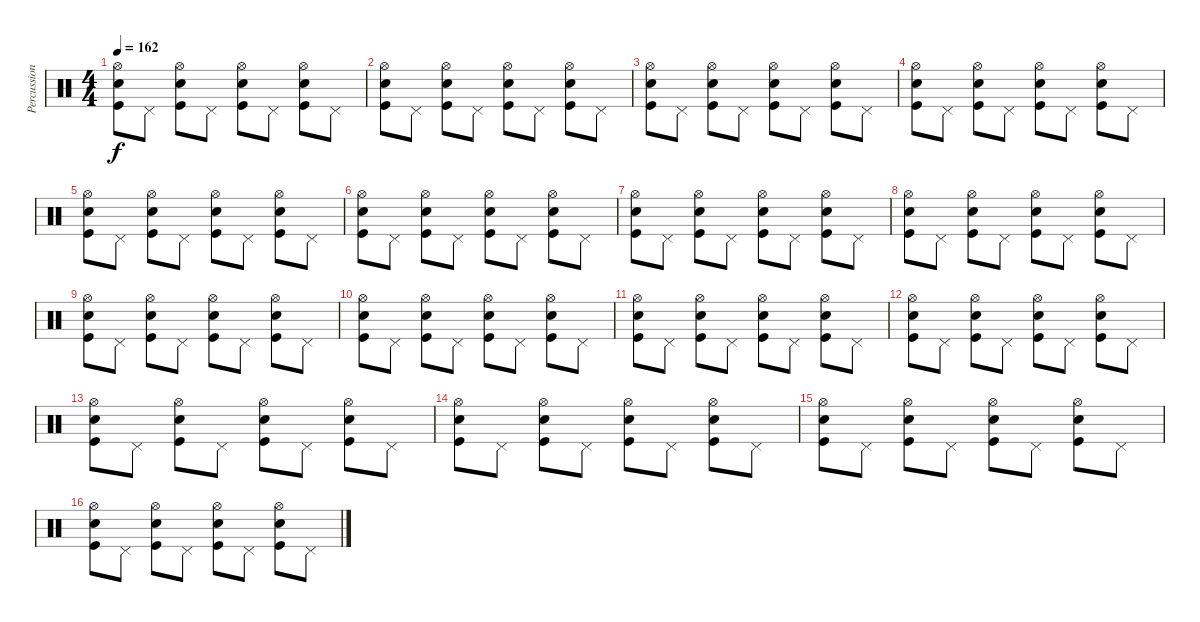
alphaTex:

\track ("Percussion" "Percussion") {instrument percussion}
\staff {score}
\articulation defaults
\ts (4 4)
\tempo 162
\clef neutral
\ks c
("Hi-Hat (open)" "Kick (hit)" "Snare (hit) 2").8{dy f} "Pedal Hi-Hat (hit)".8 ("Hi-Hat (open)" "Snare (hit) 2" "Kick (hit)").8 "Pedal Hi-Hat (hit)".8 ("Hi-Hat (open)" "Kick (hit)" "Snare (hit) 2").8 "Pedal Hi-Hat (hit)".8 ("Hi-Hat (open)" "Snare (hit) 2" "Kick (hit)").8 "Pedal Hi-Hat (hit)".8 |
("Hi-Hat (open)" "Kick (hit)" "Snare (hit) 2").8 "Pedal Hi-Hat (hit)".8 ("Hi-Hat (open)" "Snare (hit) 2" "Kick (hit)").8 "Pedal Hi-Hat (hit)".8 ("Hi-Hat (open)" "Kick (hit)" "Snare (hit) 2").8 "Pedal Hi-Hat (hit)".8 ("Hi-Hat (open)" "Snare (hit) 2" "Kick (hit)").8 "Pedal Hi-Hat (hit)".8 |
("Hi-Hat (open)" "Kick (hit)" "Snare (hit) 2").8 "Pedal Hi-Hat (hit)".8 ("Hi-Hat (open)" "Snare (hit) 2" "Kick (hit)").8 "Pedal Hi-Hat (hit)".8 ("Hi-Hat (open)" "Kick (hit)" "Snare (hit) 2").8 "Pedal Hi-Hat (hit)".8 ("Hi-Hat (open)" "Snare (hit) 2" "Kick (hit)").8 "Pedal Hi-Hat (hit)".8 |
("Hi-Hat (open)" "Kick (hit)" "Snare (hit) 2").8 "Pedal Hi-Hat (hit)".8 ("Hi-Hat (open)" "Snare (hit) 2" "Kick (hit)").8 "Pedal Hi-Hat (hit)".8 ("Hi-Hat (open)" "Kick (hit)" "Snare (hit) 2").8 "Pedal Hi-Hat (hit)".8 ("Hi-Hat (open)" "Snare (hit) 2" "Kick (hit)").8 "Pedal Hi-Hat (hit)".8 |
("Hi-Hat (open)" "Kick (hit)" "Snare (hit) 2").8 "Pedal Hi-Hat (hit)".8 ("Hi-Hat (open)" "Snare (hit) 2" "Kick (hit)").8 "Pedal Hi-Hat (hit)".8 ("Hi-Hat (open)" "Kick (hit)" "Snare (hit) 2").8 "Pedal Hi-Hat (hit)".8 ("Hi-Hat (open)" "Snare (hit) 2" "Kick (hit)").8 "Pedal Hi-Hat (hit)".8 |
("Hi-Hat (open)" "Kick (hit)" "Snare (hit) 2").8 "Pedal Hi-Hat (hit)".8 ("Hi-Hat (open)" "Snare (hit) 2" "Kick (hit)").8 "Pedal Hi-Hat (hit)".8 ("Hi-Hat (open)" "Kick (hit)" "Snare (hit) 2").8 "Pedal Hi-Hat (hit)".8 ("Hi-Hat (open)" "Snare (hit) 2" "Kick (hit)").8 "Pedal Hi-Hat (hit)".8 |
("Hi-Hat (open)" "Kick (hit)" "Snare (hit) 2").8 "Pedal Hi-Hat (hit)".8 ("Hi-Hat (open)" "Snare (hit) 2" "Kick (hit)").8 "Pedal Hi-Hat (hit)".8 ("Hi-Hat (open)" "Kick (hit)" "Snare (hit) 2").8 "Pedal Hi-Hat (hit)".8 ("Hi-Hat (open)" "Snare (hit) 2" "Kick (hit)").8 "Pedal Hi-Hat (hit)".8 |
("Hi-Hat (open)" "Kick (hit)" "Snare (hit) 2").8 "Pedal Hi-Hat (hit)".8 ("Hi-Hat (open)" "Snare (hit) 2" "Kick (hit)").8 "Pedal Hi-Hat (hit)".8 ("Hi-Hat (open)" "Kick (hit)" "Snare (hit) 2").8 "Pedal Hi-Hat (hit)".8 ("Hi-Hat (open)" "Snare (hit) 2" "Kick (hit)").8 "Pedal Hi-Hat (hit)".8 |
("Hi-Hat (open)" "Kick (hit)" "Snare (hit) 2").8 "Pedal Hi-Hat (hit)".8 ("Hi-Hat (open)" "Snare (hit) 2" "Kick (hit)").8 "Pedal Hi-Hat (hit)".8 ("Hi-Hat (open)" "Kick (hit)" "Snare (hit) 2").8 "Pedal Hi-Hat (hit)".8 ("Hi-Hat (open)" "Snare (hit) 2" "Kick (hit)").8 "Pedal Hi-Hat (hit)".8 |
("Hi-Hat (open)" "Kick (hit)" "Snare (hit) 2").8 "Pedal Hi-Hat (hit)".8 ("Hi-Hat (open)" "Snare (hit) 2" "Kick (hit)").8 "Pedal Hi-Hat (hit)".8 ("Hi-Hat (open)" "Kick (hit)" "Snare (hit) 2").8 "Pedal Hi-Hat (hit)".8 ("Hi-Hat (open)" "Snare (hit) 2" "Kick (hit)").8 "Pedal Hi-Hat (hit)".8 |
("Hi-Hat (open)" "Kick (hit)" "Snare (hit) 2").8 "Pedal Hi-Hat (hit)".8 ("Hi-Hat (open)" "Snare (hit) 2" "Kick (hit)").8 "Pedal Hi-Hat (hit)".8 ("Hi-Hat (open)" "Kick (hit)" "Snare (hit) 2").8 "Pedal Hi-Hat (hit)".8 ("Hi-Hat (open)" "Snare (hit) 2" "Kick (hit)").8 "Pedal Hi-Hat (hit)".8 |
("Hi-Hat (open)" "Kick (hit)" "Snare (hit) 2").8 "Pedal Hi-Hat (hit)".8 ("Hi-Hat (open)" "Snare (hit) 2" "Kick (hit)").8 "Pedal Hi-Hat (hit)".8 ("Hi-Hat (open)" "Kick (hit)" "Snare (hit) 2").8 "Pedal Hi-Hat (hit)".8 ("Hi-Hat (open)" "Snare (hit) 2" "Kick (hit)").8 "Pedal Hi-Hat (hit)".8 |
("Hi-Hat (open)" "Kick (hit)" "Snare (hit) 2").8 "Pedal Hi-Hat (hit)".8 ("Hi-Hat (open)" "Snare (hit) 2" "Kick (hit)").8 "Pedal Hi-Hat (hit)".8 ("Hi-Hat (open)" "Kick (hit)" "Snare (hit) 2").8 "Pedal Hi-Hat (hit)".8 ("Hi-Hat (open)" "Snare (hit) 2" "Kick (hit)").8 "Pedal Hi-Hat (hit)".8 |
("Hi-Hat (open)" "Kick (hit)" "Snare (hit) 2").8 "Pedal Hi-Hat (hit)".8 ("Hi-Hat (open)" "Snare (hit) 2" "Kick (hit)").8 "Pedal Hi-Hat (hit)".8 ("Hi-Hat (open)" "Kick (hit)" "Snare (hit) 2").8 "Pedal Hi-Hat (hit)".8 ("Hi-Hat (open)" "Snare (hit) 2" "Kick (hit)").8 "Pedal Hi-Hat (hit)".8 |
("Hi-Hat (open)" "Kick (hit)" "Snare (hit) 2").8 "Pedal Hi-Hat (hit)".8 ("Hi-Hat (open)" "Snare (hit) 2" "Kick (hit)").8 "Pedal Hi-Hat (hit)".8 ("Hi-Hat (open)" "Kick (hit)" "Snare (hit) 2").8 "Pedal Hi-Hat (hit)".8 ("Hi-Hat (open)" "Snare (hit) 2" "Kick (hit)").8 "Pedal Hi-Hat (hit)".8 |
("Hi-Hat (open)" "Kick (hit)" "Snare (hit) 2").8 "Pedal Hi-Hat (hit)".8 ("Hi-Hat (open)" "Snare (hit) 2" "Kick (hit)").8 "Pedal Hi-Hat (hit)".8 ("Hi-Hat (open)" "Kick (hit)" "Snare (hit) 2").8 "Pedal Hi-Hat (hit)".8 ("Hi-Hat (open)" "Snare (hit) 2" "Kick (hit)").8 "Pedal Hi-Hat (hit)".8
